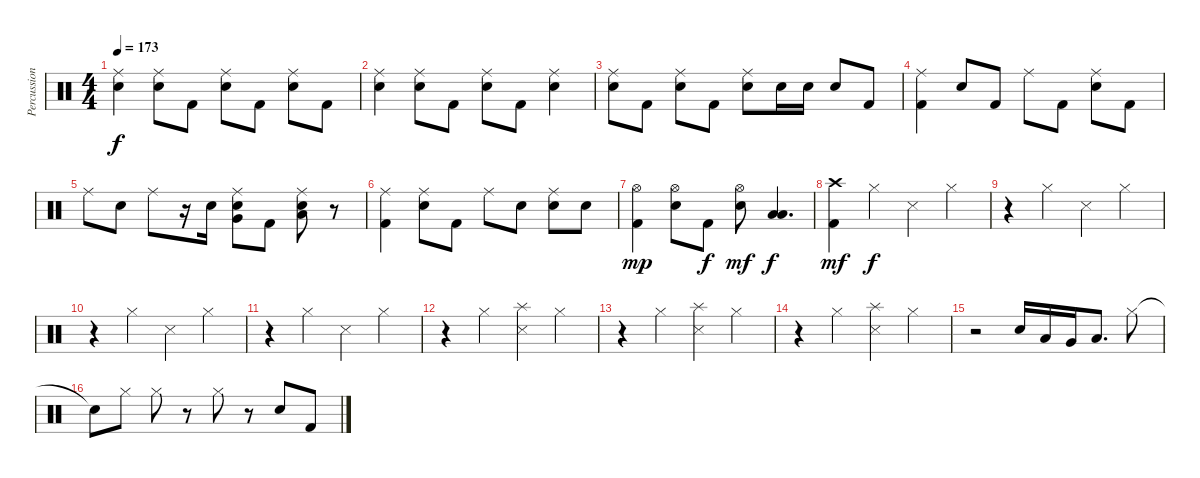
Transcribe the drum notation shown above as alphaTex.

\track ("Percussion" "Percussion") {instrument percussion}
\staff {score}
\articulation defaults
\ts (4 4)
\tempo 173
\clef neutral
\ks c
("Ride (middle)" "Electric Snare (hit)").4{dy f} ("Ride (middle)" "Electric Snare (hit)").8 "Kick (hit) 2".8 ("Ride (middle)" "Electric Snare (hit)").8 "Kick (hit) 2".8 ("Ride (middle)" "Electric Snare (hit)").8 "Kick (hit) 2".8 |
("Ride (middle)" "Electric Snare (hit)").4 ("Ride (middle)" "Electric Snare (hit)").8 "Kick (hit) 2".8 ("Ride (middle)" "Electric Snare (hit)").8 "Kick (hit) 2".8 ("Ride (middle)" "Electric Snare (hit)").4 |
("Ride (middle)" "Electric Snare (hit)").8 "Kick (hit) 2".8 ("Ride (middle)" "Electric Snare (hit)").8 "Kick (hit) 2".8 ("Ride (middle)" "Electric Snare (hit)").8 "Electric Snare (hit)".16 "Electric Snare (hit)".16 "Electric Snare (hit)".8 "Kick (hit) 2".8 |
("Ride (middle)" "Kick (hit) 2").4 "Electric Snare (hit)".8 "Kick (hit) 2".8 "Ride (middle)".8 "Kick (hit) 2".8 ("Ride (middle)" "Electric Snare (hit)").8 "Kick (hit) 2".8 |
"Ride (middle)".8 "Electric Snare (hit)".8 "Ride (middle)".8 r.16 "Electric Snare (hit)".16 ("Ride (middle)" "Very Low Tom (hit)" "Electric Snare (hit)").8 "Kick (hit) 2".8 ("Ride (middle)" "Low Floor Tom (hit)" "Electric Snare (hit)").8 r.8 |
("Ride (middle)" "Kick (hit) 2").4 ("Ride (middle)" "Electric Snare (hit)").8 "Kick (hit) 2".8 "Ride (middle)".8 "Electric Snare (hit)".8 ("Ride (middle)" "Electric Snare (hit)").8 "Electric Snare (hit)".8 |
("Hi-Hat (open)" "Kick (hit) 2").4{dy mp} ("Hi-Hat (open)" "Electric Snare (hit)").8 "Kick (hit) 2".8{dy f} ("Hi-Hat (open)" "Electric Snare (hit)").8{dy mf} ("Low Tom (hit)" "Low Tom (hit)").4{d dy f} |
("Crash high (hit)" "Kick (hit) 2").4{dy mf} "Hi-Hat (closed)".4{dy f} "Snare (side stick) 3".4 "Hi-Hat (closed)".4 |
r.4 "Hi-Hat (closed)".4 "Snare (side stick) 3".4 "Hi-Hat (closed)".4 |
r.4 "Hi-Hat (closed)".4 "Snare (side stick) 3".4 "Hi-Hat (closed)".4 |
r.4 "Hi-Hat (closed)".4 "Snare (side stick) 3".4 "Hi-Hat (closed)".4 |
r.4 "Hi-Hat (closed)".4 ("Splash (hit)" "Snare (side stick) 3").4 "Hi-Hat (closed)".4 |
r.4 "Hi-Hat (closed)".4 ("Splash (hit)" "Snare (side stick) 3").4 "Hi-Hat (closed)".4 |
r.4 "Hi-Hat (closed)".4 ("Splash (hit)" "Snare (side stick) 3").4 "Hi-Hat (closed)".4 |
r.2 "Electric Snare (hit)".16 "Low Tom (hit)".16 "Very Low Tom (hit)".16 "Low Floor Tom (hit)".8{d} "Hi-Hat (closed)".8 |
"Snare (hit)"{t}.8 "Hi-Hat (closed)".8 "Hi-Hat (closed)".8 r.8 "Hi-Hat (closed)".8 r.8 "Electric Snare (hit)".8 "Kick (hit) 2".8
